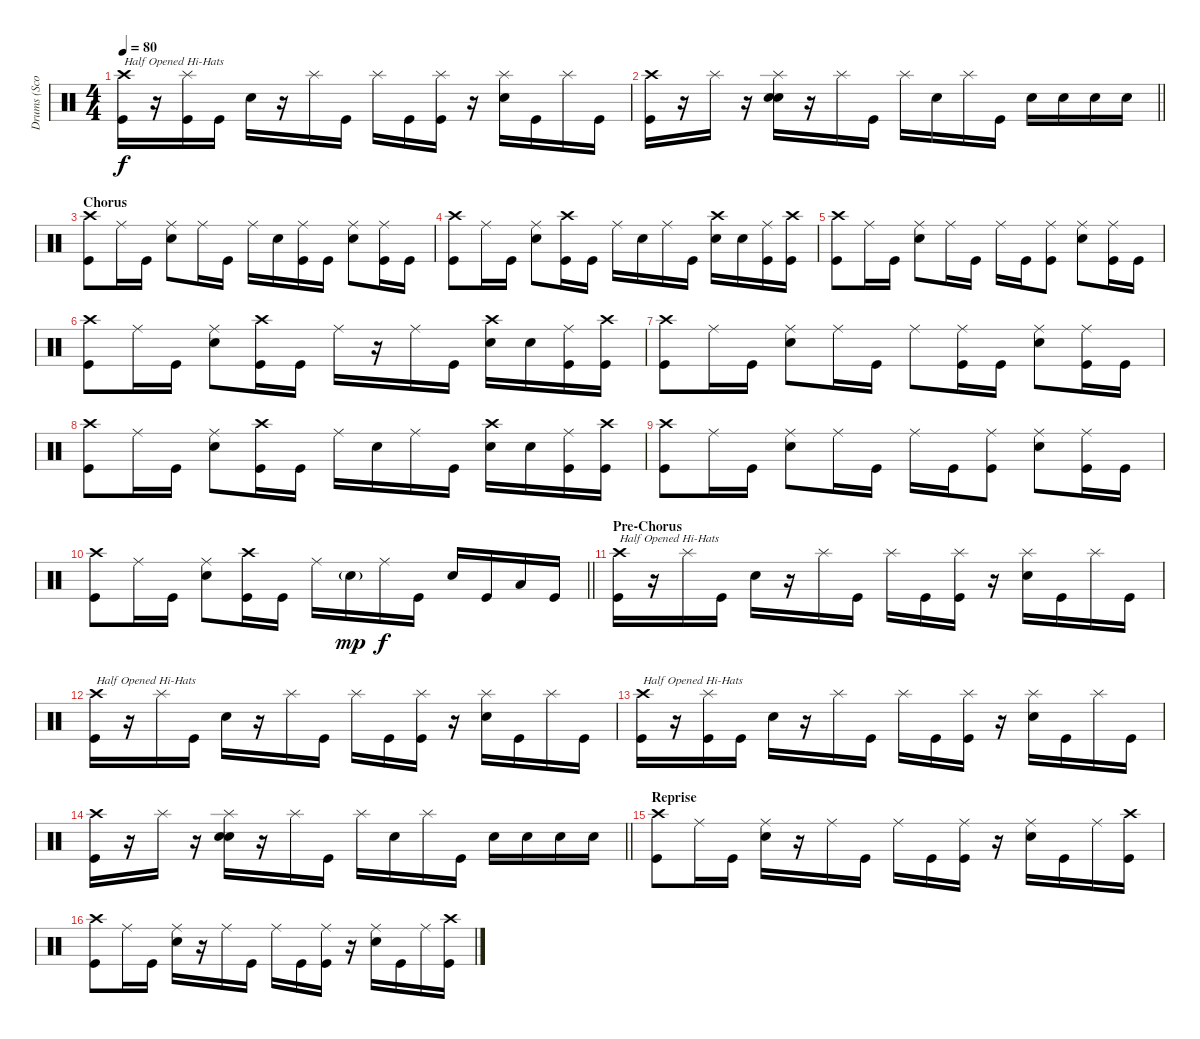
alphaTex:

\track ("Drums (Scott Phillips)" "Drums (Sco") {instrument percussion}
\staff {score}
\articulation defaults
\ts (4 4)
\tempo 80
\clef neutral
\ks c
("Crash high (hit)" "Kick (hit)").16{txt "Half Opened Hi-Hats" dy f} r.16 ("Splash (hit)" "Kick (hit)").16 "Kick (hit)".16 "Snare (hit) 2".16 r.16 "Splash (hit)".16 "Kick (hit)".16 "Splash (hit)".16 "Kick (hit)".16 ("Splash (hit)" "Kick (hit)").16 r.16 ("Splash (hit)" "Snare (hit) 2").16 "Kick (hit)".16 "Splash (hit)".16 "Kick (hit)".16 |
\barLineRight lightlight
("Crash high (hit)" "Kick (hit)").16 r.16 "Splash (hit)".16 r.16 ("Splash (hit)" "Snare (hit) 2" "Snare (hit) 2").16 r.16 "Splash (hit)".16 "Kick (hit)".16 "Splash (hit)".16 "Snare (hit) 2".16 "Splash (hit)".16 "Kick (hit)".16 "Snare (hit) 2".16 "Snare (hit) 2".16 "Snare (hit) 2".16 "Snare (hit) 2".16 |
\section ("" "Chorus")
("Crash high (hit)" "Kick (hit)").8 "Ride (middle)".16 "Kick (hit)".16 ("Ride (middle)" "Snare (hit) 2").8 "Ride (middle)".16 "Kick (hit)".16 "Ride (middle)".16 "Snare (hit) 2".16 ("Ride (middle)" "Kick (hit)").16 "Kick (hit)".16 ("Ride (middle)" "Snare (hit) 2").8 ("Ride (middle)" "Kick (hit)").16 "Kick (hit)".16 |
("Crash high (hit)" "Kick (hit)").8 "Ride (middle)".16 "Kick (hit)".16 ("Ride (middle)" "Snare (hit) 2").8 ("Crash high (hit)" "Kick (hit)").16 "Kick (hit)".16 "Ride (middle)".16 "Snare (hit) 2".16 "Ride (middle)".16 "Kick (hit)".16 ("Crash high (hit)" "Snare (hit) 2").16 "Snare (hit) 2".16 ("Ride (middle)" "Kick (hit)").16 ("Crash high (hit)" "Kick (hit)").16 |
("Crash high (hit)" "Kick (hit)").8 "Ride (middle)".16 "Kick (hit)".16 ("Ride (middle)" "Snare (hit) 2").8 "Ride (middle)".16 "Kick (hit)".16 "Ride (middle)".16 "Kick (hit)".16 ("Ride (middle)" "Kick (hit)").8 ("Ride (middle)" "Snare (hit) 2").8 ("Ride (middle)" "Kick (hit)").16 "Kick (hit)".16 |
("Crash high (hit)" "Kick (hit)").8 "Ride (middle)".16 "Kick (hit)".16 ("Ride (middle)" "Snare (hit) 2").8 ("Crash high (hit)" "Kick (hit)").16 "Kick (hit)".16 "Ride (middle)".16 r.16 "Ride (middle)".16 "Kick (hit)".16 ("Crash high (hit)" "Snare (hit) 2").16 "Snare (hit) 2".16 ("Ride (middle)" "Kick (hit)").16 ("Crash high (hit)" "Kick (hit)").16 |
("Crash high (hit)" "Kick (hit)").8 "Ride (middle)".16 "Kick (hit)".16 ("Ride (middle)" "Snare (hit) 2").8 "Ride (middle)".16 "Kick (hit)".16 "Ride (middle)".8 ("Ride (middle)" "Kick (hit)").16 "Kick (hit)".16 ("Ride (middle)" "Snare (hit) 2").8 ("Ride (middle)" "Kick (hit)").16 "Kick (hit)".16 |
("Crash high (hit)" "Kick (hit)").8 "Ride (middle)".16 "Kick (hit)".16 ("Ride (middle)" "Snare (hit) 2").8 ("Crash high (hit)" "Kick (hit)").16 "Kick (hit)".16 "Ride (middle)".16 "Snare (hit) 2".16 "Ride (middle)".16 "Kick (hit)".16 ("Crash high (hit)" "Snare (hit) 2").16 "Snare (hit) 2".16 ("Ride (middle)" "Kick (hit)").16 ("Crash high (hit)" "Kick (hit)").16 |
("Crash high (hit)" "Kick (hit)").8 "Ride (middle)".16 "Kick (hit)".16 ("Ride (middle)" "Snare (hit) 2").8 "Ride (middle)".16 "Kick (hit)".16 "Ride (middle)".16 "Kick (hit)".16 ("Ride (middle)" "Kick (hit)").8 ("Ride (middle)" "Snare (hit) 2").8 ("Ride (middle)" "Kick (hit)").16 "Kick (hit)".16 |
\barLineRight lightlight
("Crash high (hit)" "Kick (hit)").8 "Ride (middle)".16 "Kick (hit)".16 ("Ride (middle)" "Snare (hit) 2").8 ("Crash high (hit)" "Kick (hit)").16 "Kick (hit)".16 "Ride (middle)".16 "Snare (hit) 2"{g}.16{dy mp} "Ride (middle)".16{dy f} "Kick (hit)".16 "Snare (hit) 2".16 "Kick (hit)".16 "Low Tom (hit)".16 "Kick (hit)".16 |
\section ("" "Pre-Chorus")
("Crash high (hit)" "Kick (hit)").16{txt "Half Opened Hi-Hats"} r.16 "Splash (hit)".16 "Kick (hit)".16 "Snare (hit) 2".16 r.16 "Splash (hit)".16 "Kick (hit)".16 "Splash (hit)".16 "Kick (hit)".16 ("Splash (hit)" "Kick (hit)").16 r.16 ("Splash (hit)" "Snare (hit) 2").16 "Kick (hit)".16 "Splash (hit)".16 "Kick (hit)".16 |
("Crash high (hit)" "Kick (hit)").16{txt "Half Opened Hi-Hats"} r.16 "Splash (hit)".16 "Kick (hit)".16 "Snare (hit) 2".16 r.16 "Splash (hit)".16 "Kick (hit)".16 "Splash (hit)".16 "Kick (hit)".16 ("Splash (hit)" "Kick (hit)").16 r.16 ("Splash (hit)" "Snare (hit) 2").16 "Kick (hit)".16 "Splash (hit)".16 "Kick (hit)".16 |
("Crash high (hit)" "Kick (hit)").16{txt "Half Opened Hi-Hats"} r.16 ("Splash (hit)" "Kick (hit)").16 "Kick (hit)".16 "Snare (hit) 2".16 r.16 "Splash (hit)".16 "Kick (hit)".16 "Splash (hit)".16 "Kick (hit)".16 ("Splash (hit)" "Kick (hit)").16 r.16 ("Splash (hit)" "Snare (hit) 2").16 "Kick (hit)".16 "Splash (hit)".16 "Kick (hit)".16 |
\barLineRight lightlight
("Crash high (hit)" "Kick (hit)").16 r.16 "Splash (hit)".16 r.16 ("Splash (hit)" "Snare (hit) 2" "Snare (hit) 2").16 r.16 "Splash (hit)".16 "Kick (hit)".16 "Splash (hit)".16 "Snare (hit) 2".16 "Splash (hit)".16 "Kick (hit)".16 "Snare (hit) 2".16 "Snare (hit) 2".16 "Snare (hit) 2".16 "Snare (hit) 2".16 |
\section ("" "Reprise")
("Crash high (hit)" "Kick (hit)").8 "Ride (middle)".16 "Kick (hit)".16 ("Ride (middle)" "Snare (hit) 2").16 r.16 "Ride (middle)".16 "Kick (hit)".16 "Ride (middle)".16 "Kick (hit)".16 ("Ride (middle)" "Kick (hit)").16 r.16 ("Ride (middle)" "Snare (hit) 2").16 "Kick (hit)".16 "Ride (middle)".16 ("Crash high (hit)" "Kick (hit)").16 |
("Crash high (hit)" "Kick (hit)").8 "Ride (middle)".16 "Kick (hit)".16 ("Ride (middle)" "Snare (hit) 2").16 r.16 "Ride (middle)".16 "Kick (hit)".16 "Ride (middle)".16 "Kick (hit)".16 ("Ride (middle)" "Kick (hit)").16 r.16 ("Ride (middle)" "Snare (hit) 2").16 "Kick (hit)".16 "Ride (middle)".16 ("Crash high (hit)" "Kick (hit)").16
